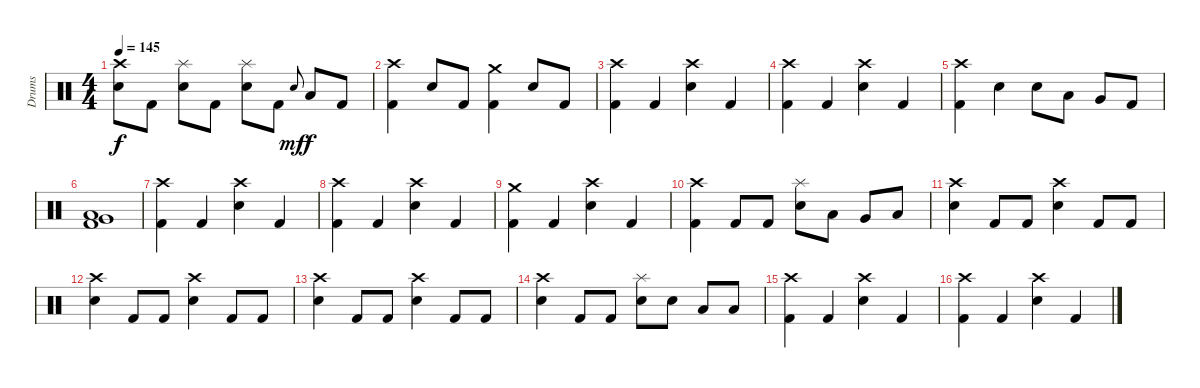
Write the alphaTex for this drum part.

\track ("Drums" "Drums") {instrument percussion}
\staff {score}
\articulation defaults
\ts (4 4)
\tempo 145
\clef neutral
\ks c
("Crash high (hit)" "Snare (hit) 2").8{dy f} "Kick (hit) 2".8 ("Splash (hit)" "Snare (hit) 2").8 "Kick (hit) 2".8 ("Splash (hit)" "Snare (hit) 2").8 "Kick (hit) 2".8 "Snare (hit)".8{gr onbeat dy mf} "Low Tom (hit)".8{dy f} "Kick (hit) 2".8 |
("Crash high (hit)" "Kick (hit) 2").4 "Snare (hit) 2".8 "Kick (hit) 2".8 ("Crash medium (hit)" "Kick (hit) 2").4 "Snare (hit) 2".8 "Kick (hit) 2".8 |
("Crash high (hit)" "Kick (hit) 2").4 "Kick (hit) 2".4 ("Crash high (hit)" "Snare (hit) 2").4 "Kick (hit) 2".4 |
("Crash high (hit)" "Kick (hit) 2").4 "Kick (hit) 2".4 ("Crash high (hit)" "Snare (hit) 2").4 "Kick (hit) 2".4 |
("Crash high (hit)" "Kick (hit) 2").4 "Snare (hit) 2".4 "Snare (hit) 2".8 "Low Tom (hit)".8 "Very Low Tom (hit)".8 "Kick (hit) 2".8 |
("Very Low Tom (hit)" "Low Floor Tom (hit)" "Kick (hit) 2").1 |
("Crash high (hit)" "Kick (hit) 2").4 "Kick (hit) 2".4 ("Crash high (hit)" "Snare (hit) 2").4 "Kick (hit) 2".4 |
("Crash high (hit)" "Kick (hit) 2").4 "Kick (hit) 2".4 ("Crash high (hit)" "Snare (hit) 2").4 "Kick (hit) 2".4 |
("Crash medium (hit)" "Kick (hit) 2").4 "Kick (hit) 2".4 ("Crash high (hit)" "Snare (hit) 2").4 "Kick (hit) 2".4 |
("Crash high (hit)" "Kick (hit) 2").4 "Kick (hit) 2".8 "Kick (hit) 2".8 ("Splash (hit)" "Snare (hit) 2").8 "Low Tom (hit)".8 "Very Low Tom (hit)".8 "Low Floor Tom (hit)".8 |
("Crash high (hit)" "Snare (hit) 2").4 "Kick (hit) 2".8 "Kick (hit) 2".8 ("Crash high (hit)" "Snare (hit) 2").4 "Kick (hit) 2".8 "Kick (hit) 2".8 |
("Crash high (hit)" "Snare (hit) 2").4 "Kick (hit) 2".8 "Kick (hit) 2".8 ("Crash high (hit)" "Snare (hit) 2").4 "Kick (hit) 2".8 "Kick (hit) 2".8 |
("Crash high (hit)" "Snare (hit) 2").4 "Kick (hit) 2".8 "Kick (hit) 2".8 ("Crash high (hit)" "Snare (hit) 2").4 "Kick (hit) 2".8 "Kick (hit) 2".8 |
("Crash high (hit)" "Snare (hit) 2").4 "Kick (hit) 2".8 "Kick (hit) 2".8 ("Splash (hit)" "Snare (hit) 2").8 "Snare (hit) 2".8 "Low Tom (hit)".8 "Low Tom (hit)".8 |
("Crash high (hit)" "Kick (hit) 2").4 "Kick (hit) 2".4 ("Crash high (hit)" "Snare (hit) 2").4 "Kick (hit) 2".4 |
("Crash high (hit)" "Kick (hit) 2").4 "Kick (hit) 2".4 ("Crash high (hit)" "Snare (hit) 2").4 "Kick (hit) 2".4
